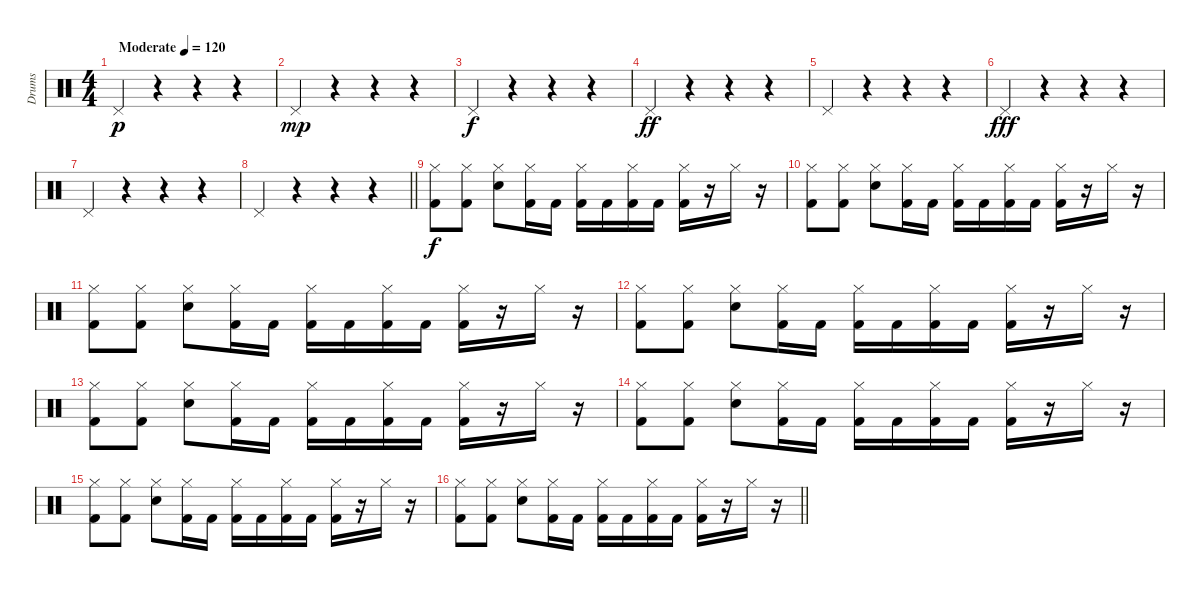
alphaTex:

\track ("Drums" "Drums") {instrument percussion}
\staff {score}
\articulation defaults
\ts (4 4)
\tempo (120 "Moderate")
\clef neutral
\ks c "Pedal Hi-Hat (hit)".4{dy p}
r.4 r.4 r.4 |
"Pedal Hi-Hat (hit)".4{dy mp} r.4 r.4 r.4 |
"Pedal Hi-Hat (hit)".4{dy f} r.4 r.4 r.4 |
"Pedal Hi-Hat (hit)".4{dy ff} r.4 r.4 r.4 |
"Pedal Hi-Hat (hit)".4 r.4 r.4 r.4 |
"Pedal Hi-Hat (hit)".4{dy fff} r.4 r.4 r.4 |
"Pedal Hi-Hat (hit)".4 r.4 r.4 r.4 |
\barLineRight lightlight "Pedal Hi-Hat (hit)".4
r.4 r.4 r.4 |
("Hi-Hat (closed)" "Kick (hit) 2").8{dy f} ("Hi-Hat (closed)" "Kick (hit) 2").8 ("Hi-Hat (closed)" "Snare (hit) 2").8 ("Hi-Hat (closed)" "Kick (hit) 2").16 "Kick (hit) 2".16 ("Hi-Hat (closed)" "Kick (hit) 2").16 "Kick (hit) 2".16 ("Hi-Hat (closed)" "Kick (hit) 2").16 "Kick (hit) 2".16 ("Hi-Hat (closed)" "Kick (hit) 2").16 r.16 "Hi-Hat (closed)".16 r.16 |
("Hi-Hat (closed)" "Kick (hit) 2").8 ("Hi-Hat (closed)" "Kick (hit) 2").8 ("Hi-Hat (closed)" "Snare (hit) 2").8 ("Hi-Hat (closed)" "Kick (hit) 2").16 "Kick (hit) 2".16 ("Hi-Hat (closed)" "Kick (hit) 2").16 "Kick (hit) 2".16 ("Hi-Hat (closed)" "Kick (hit) 2").16 "Kick (hit) 2".16 ("Hi-Hat (closed)" "Kick (hit) 2").16 r.16 "Hi-Hat (closed)".16 r.16 |
("Hi-Hat (closed)" "Kick (hit) 2").8 ("Hi-Hat (closed)" "Kick (hit) 2").8 ("Hi-Hat (closed)" "Snare (hit) 2").8 ("Hi-Hat (closed)" "Kick (hit) 2").16 "Kick (hit) 2".16 ("Hi-Hat (closed)" "Kick (hit) 2").16 "Kick (hit) 2".16 ("Hi-Hat (closed)" "Kick (hit) 2").16 "Kick (hit) 2".16 ("Hi-Hat (closed)" "Kick (hit) 2").16 r.16 "Hi-Hat (closed)".16 r.16 |
("Hi-Hat (closed)" "Kick (hit) 2").8 ("Hi-Hat (closed)" "Kick (hit) 2").8 ("Hi-Hat (closed)" "Snare (hit) 2").8 ("Hi-Hat (closed)" "Kick (hit) 2").16 "Kick (hit) 2".16 ("Hi-Hat (closed)" "Kick (hit) 2").16 "Kick (hit) 2".16 ("Hi-Hat (closed)" "Kick (hit) 2").16 "Kick (hit) 2".16 ("Hi-Hat (closed)" "Kick (hit) 2").16 r.16 "Hi-Hat (closed)".16 r.16 |
("Hi-Hat (closed)" "Kick (hit) 2").8 ("Hi-Hat (closed)" "Kick (hit) 2").8 ("Hi-Hat (closed)" "Snare (hit) 2").8 ("Hi-Hat (closed)" "Kick (hit) 2").16 "Kick (hit) 2".16 ("Hi-Hat (closed)" "Kick (hit) 2").16 "Kick (hit) 2".16 ("Hi-Hat (closed)" "Kick (hit) 2").16 "Kick (hit) 2".16 ("Hi-Hat (closed)" "Kick (hit) 2").16 r.16 "Hi-Hat (closed)".16 r.16 |
("Hi-Hat (closed)" "Kick (hit) 2").8 ("Hi-Hat (closed)" "Kick (hit) 2").8 ("Hi-Hat (closed)" "Snare (hit) 2").8 ("Hi-Hat (closed)" "Kick (hit) 2").16 "Kick (hit) 2".16 ("Hi-Hat (closed)" "Kick (hit) 2").16 "Kick (hit) 2".16 ("Hi-Hat (closed)" "Kick (hit) 2").16 "Kick (hit) 2".16 ("Hi-Hat (closed)" "Kick (hit) 2").16 r.16 "Hi-Hat (closed)".16 r.16 |
("Hi-Hat (closed)" "Kick (hit) 2").8 ("Hi-Hat (closed)" "Kick (hit) 2").8 ("Hi-Hat (closed)" "Snare (hit) 2").8 ("Hi-Hat (closed)" "Kick (hit) 2").16 "Kick (hit) 2".16 ("Hi-Hat (closed)" "Kick (hit) 2").16 "Kick (hit) 2".16 ("Hi-Hat (closed)" "Kick (hit) 2").16 "Kick (hit) 2".16 ("Hi-Hat (closed)" "Kick (hit) 2").16 r.16 "Hi-Hat (closed)".16 r.16 |
\barLineRight lightlight
("Hi-Hat (closed)" "Kick (hit) 2").8 ("Hi-Hat (closed)" "Kick (hit) 2").8 ("Hi-Hat (closed)" "Snare (hit) 2").8 ("Hi-Hat (closed)" "Kick (hit) 2").16 "Kick (hit) 2".16 ("Hi-Hat (closed)" "Kick (hit) 2").16 "Kick (hit) 2".16 ("Hi-Hat (closed)" "Kick (hit) 2").16 "Kick (hit) 2".16 ("Hi-Hat (closed)" "Kick (hit) 2").16 r.16 "Hi-Hat (closed)".16 r.16
